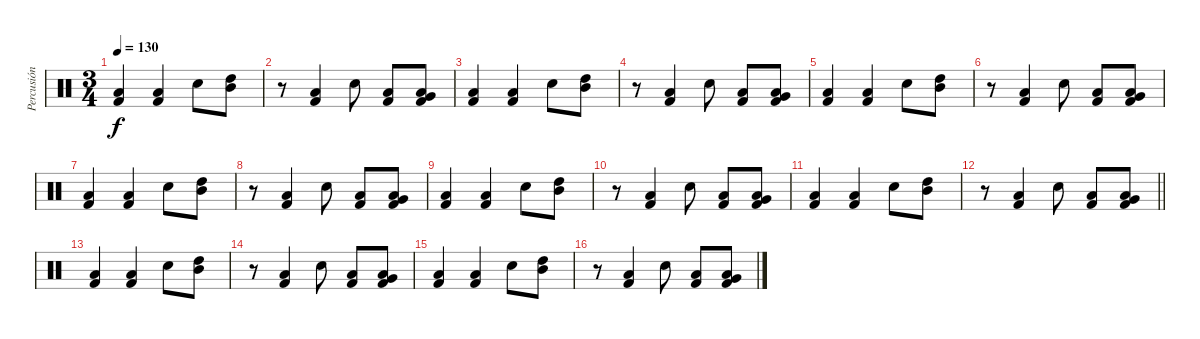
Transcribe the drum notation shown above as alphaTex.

\track ("Percusión" "Percusión") {instrument percussion}
\staff {score}
\articulation defaults
\ts (3 4)
\tempo 130
\clef neutral
\ks c
("Kick (hit) 2" "Low Floor Tom (hit)").4{dy f} ("Kick (hit) 2" "Low Floor Tom (hit)").4 "Snare (hit) 2".8 ("Mid Tom (hit)" "High Tom (hit)").8 |
r.8 ("Kick (hit) 2" "Low Floor Tom (hit)").4 "Snare (hit) 2".8 ("Kick (hit) 2" "Low Floor Tom (hit)").8 ("Kick (hit) 2" "Very Low Tom (hit)" "Low Floor Tom (hit)").8 |
("Kick (hit) 2" "Low Floor Tom (hit)").4 ("Kick (hit) 2" "Low Floor Tom (hit)").4 "Snare (hit) 2".8 ("Mid Tom (hit)" "High Tom (hit)").8 |
r.8 ("Kick (hit) 2" "Low Floor Tom (hit)").4 "Snare (hit) 2".8 ("Kick (hit) 2" "Low Floor Tom (hit)").8 ("Kick (hit) 2" "Very Low Tom (hit)" "Low Floor Tom (hit)").8 |
("Kick (hit) 2" "Low Floor Tom (hit)").4 ("Kick (hit) 2" "Low Floor Tom (hit)").4 "Snare (hit) 2".8 ("Mid Tom (hit)" "High Tom (hit)").8 |
r.8 ("Kick (hit) 2" "Low Floor Tom (hit)").4 "Snare (hit) 2".8 ("Kick (hit) 2" "Low Floor Tom (hit)").8 ("Kick (hit) 2" "Very Low Tom (hit)" "Low Floor Tom (hit)").8 |
("Kick (hit) 2" "Low Floor Tom (hit)").4 ("Kick (hit) 2" "Low Floor Tom (hit)").4 "Snare (hit) 2".8 ("Mid Tom (hit)" "High Tom (hit)").8 |
r.8 ("Kick (hit) 2" "Low Floor Tom (hit)").4 "Snare (hit) 2".8 ("Kick (hit) 2" "Low Floor Tom (hit)").8 ("Kick (hit) 2" "Very Low Tom (hit)" "Low Floor Tom (hit)").8 |
("Kick (hit) 2" "Low Floor Tom (hit)").4 ("Kick (hit) 2" "Low Floor Tom (hit)").4 "Snare (hit) 2".8 ("Mid Tom (hit)" "High Tom (hit)").8 |
r.8 ("Kick (hit) 2" "Low Floor Tom (hit)").4 "Snare (hit) 2".8 ("Kick (hit) 2" "Low Floor Tom (hit)").8 ("Kick (hit) 2" "Very Low Tom (hit)" "Low Floor Tom (hit)").8 |
("Kick (hit) 2" "Low Floor Tom (hit)").4 ("Kick (hit) 2" "Low Floor Tom (hit)").4 "Snare (hit) 2".8 ("Mid Tom (hit)" "High Tom (hit)").8 |
\barLineRight lightlight
r.8 ("Kick (hit) 2" "Low Floor Tom (hit)").4 "Snare (hit) 2".8 ("Kick (hit) 2" "Low Floor Tom (hit)").8 ("Kick (hit) 2" "Very Low Tom (hit)" "Low Floor Tom (hit)").8 |
("Kick (hit) 2" "Low Floor Tom (hit)").4 ("Kick (hit) 2" "Low Floor Tom (hit)").4 "Snare (hit) 2".8 ("Mid Tom (hit)" "High Tom (hit)").8 |
r.8 ("Kick (hit) 2" "Low Floor Tom (hit)").4 "Snare (hit) 2".8 ("Kick (hit) 2" "Low Floor Tom (hit)").8 ("Kick (hit) 2" "Very Low Tom (hit)" "Low Floor Tom (hit)").8 |
("Kick (hit) 2" "Low Floor Tom (hit)").4 ("Kick (hit) 2" "Low Floor Tom (hit)").4 "Snare (hit) 2".8 ("Mid Tom (hit)" "High Tom (hit)").8 |
r.8 ("Kick (hit) 2" "Low Floor Tom (hit)").4 "Snare (hit) 2".8 ("Kick (hit) 2" "Low Floor Tom (hit)").8 ("Kick (hit) 2" "Very Low Tom (hit)" "Low Floor Tom (hit)").8
